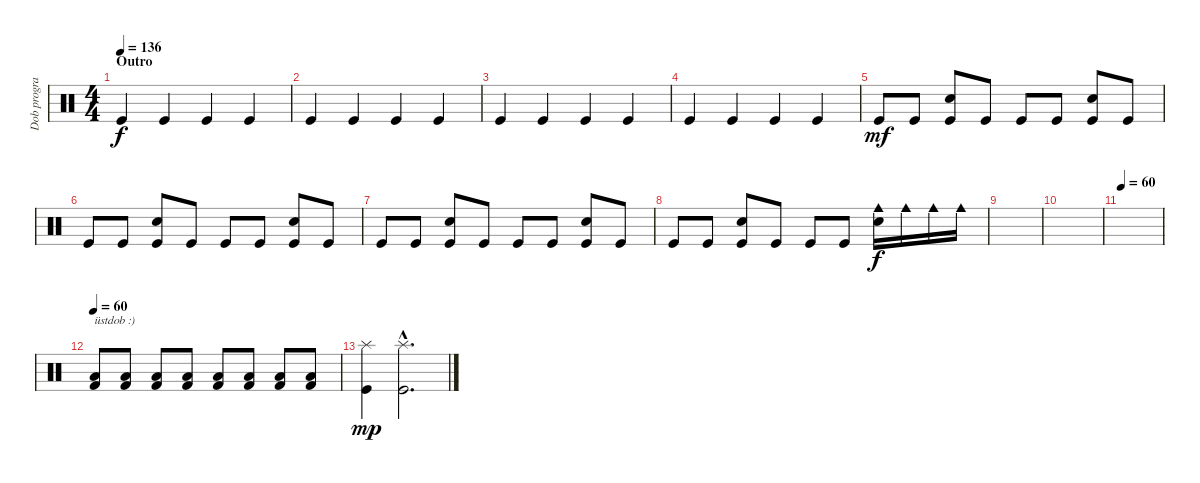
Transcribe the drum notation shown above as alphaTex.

\track ("Dob program" "Dob progra") {instrument percussion}
\staff {score}
\articulation defaults
\ts (4 4)
\section ("" "Outro")
\tempo 136
\clef neutral
\ks c "Kick (hit)".4{dy f} "Kick (hit)".4 "Kick (hit)".4 "Kick (hit)".4
|
"Kick (hit)".4 "Kick (hit)".4 "Kick (hit)".4 "Kick (hit)".4 |
"Kick (hit)".4 "Kick (hit)".4 "Kick (hit)".4 "Kick (hit)".4 |
"Kick (hit)".4 "Kick (hit)".4 "Kick (hit)".4 "Kick (hit)".4 |
"Kick (hit)".8{dy mf} "Kick (hit)".8 ("Electric Snare (hit)" "Kick (hit)").8 "Kick (hit)".8 "Kick (hit)".8 "Kick (hit)".8 ("Electric Snare (hit)" "Kick (hit)").8 "Kick (hit)".8 |
"Kick (hit)".8 "Kick (hit)".8 ("Electric Snare (hit)" "Kick (hit)").8 "Kick (hit)".8 "Kick (hit)".8 "Kick (hit)".8 ("Electric Snare (hit)" "Kick (hit)").8 "Kick (hit)".8 |
"Kick (hit)".8 "Kick (hit)".8 ("Electric Snare (hit)" "Kick (hit)").8 "Kick (hit)".8 "Kick (hit)".8 "Kick (hit)".8 ("Electric Snare (hit)" "Kick (hit)").8 "Kick (hit)".8 |
"Kick (hit)".8 "Kick (hit)".8 ("Electric Snare (hit)" "Kick (hit)").8 "Kick (hit)".8 "Kick (hit)".8 "Kick (hit)".8 ("Cowbell medium (hit)" "Electric Snare (hit)").16{dy f} "Cowbell medium (hit)".16 "Cowbell medium (hit)".16 "Cowbell medium (hit)".16 |
|
|
\tempo 60
|
\tempo 60
("Kick (hit) 2" "Low Tom (hit)").8{txt "üstdob :)"} ("Kick (hit) 2" "Low Tom (hit)").8 ("Kick (hit) 2" "Low Tom (hit)").8 ("Kick (hit) 2" "Low Tom (hit)").8 ("Kick (hit) 2" "Low Tom (hit)").8 ("Kick (hit) 2" "Low Tom (hit)").8 ("Kick (hit) 2" "Low Tom (hit)").8 ("Kick (hit) 2" "Low Tom (hit)").8 |
("Splash (hit)" "Kick (hit)").4{dy mp} ("Splash (hit)"{hac} "Kick (hit)"{hac}).2{d}
